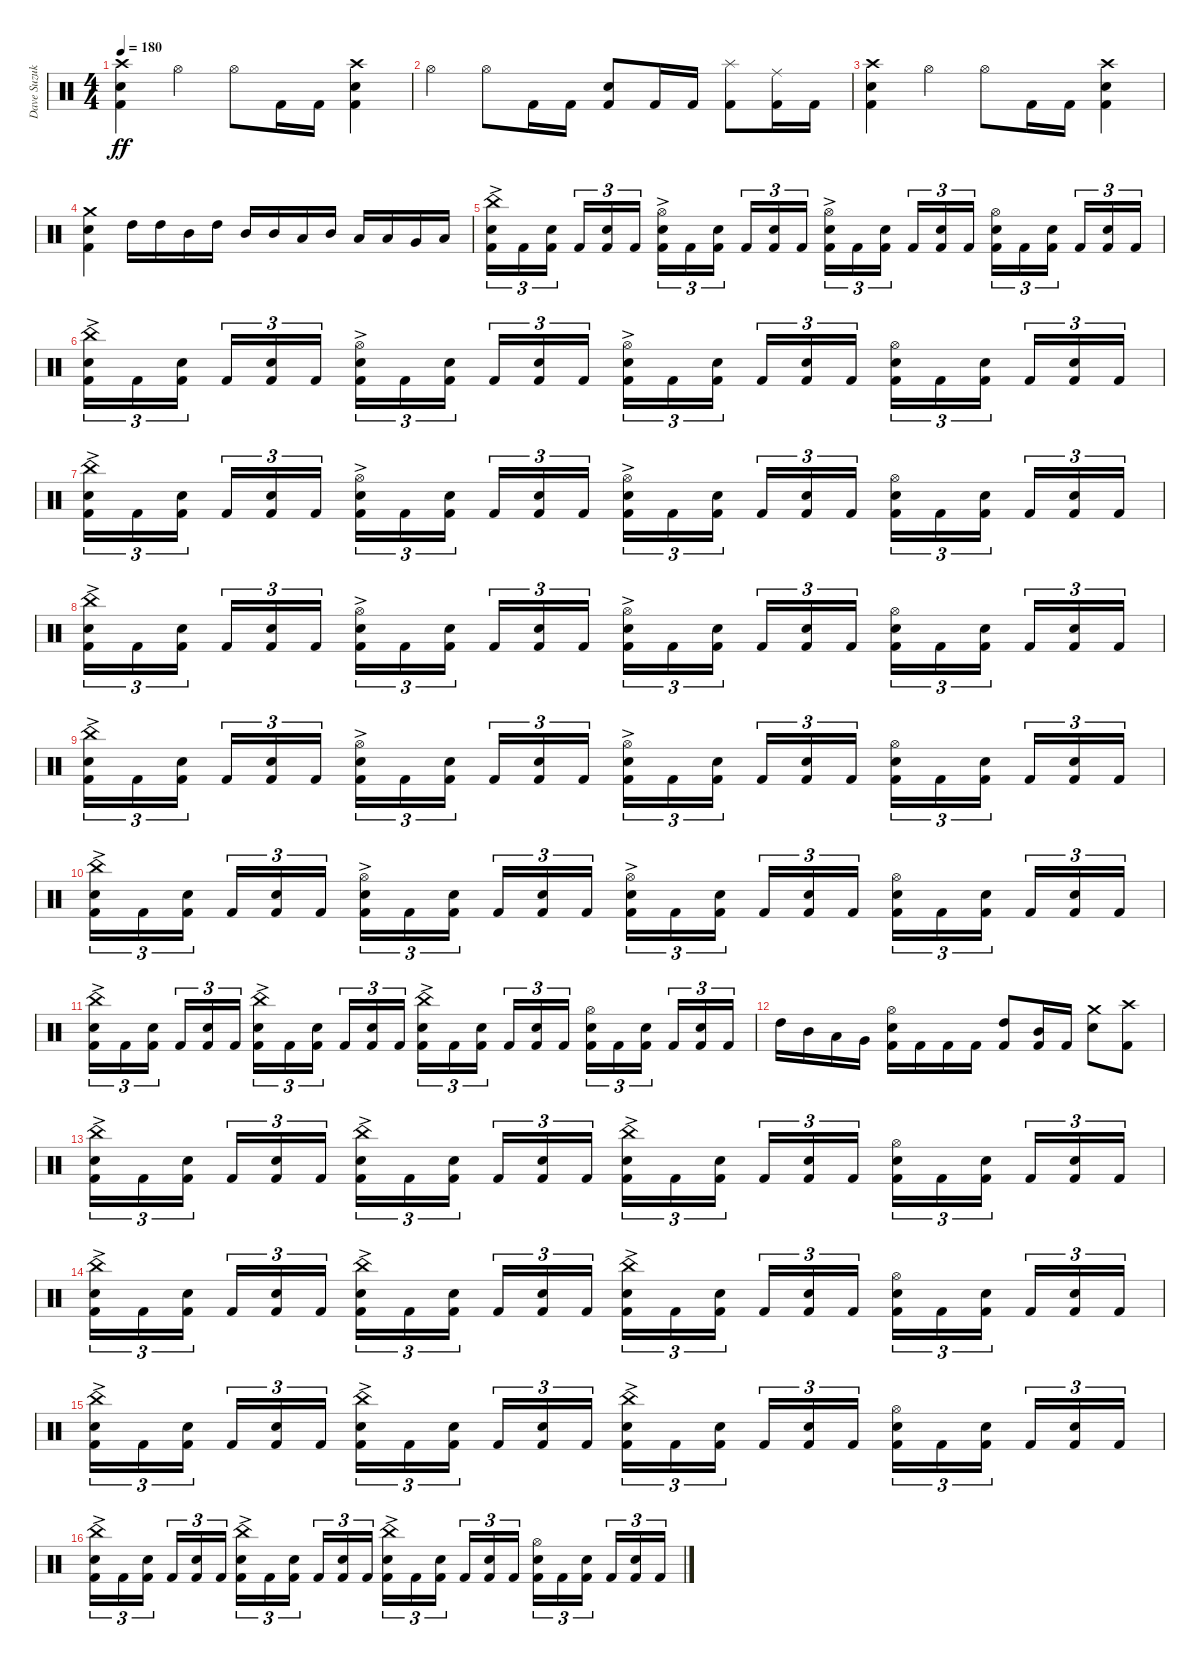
\track ("Dave Suzuki - Drums" "Dave Suzuk") {instrument percussion}
\staff {score}
\articulation defaults
\ts (4 4)
\tempo 180
\clef neutral
\ks c
("Crash high (hit)" "Electric Snare (hit)" "Kick (hit) 2").4{dy ff} "Hi-Hat (open)".4 "Hi-Hat (open)".8 "Kick (hit) 2".16 "Kick (hit) 2".16 ("Crash high (hit)" "Electric Snare (hit)" "Kick (hit) 2").4 |
"Hi-Hat (open)".4 "Hi-Hat (open)".8 "Kick (hit) 2".16 "Kick (hit) 2".16 ("Electric Snare (hit)" "Kick (hit) 2").8 "Kick (hit) 2".16 "Kick (hit) 2".16 ("Splash (hit)" "Kick (hit) 2").8 ("Ride (middle)" "Kick (hit) 2").16 "Kick (hit) 2".16 |
("Crash high (hit)" "Electric Snare (hit)" "Kick (hit) 2").4 "Hi-Hat (open)".4 "Hi-Hat (open)".8 "Kick (hit) 2".16 "Kick (hit) 2".16 ("Crash high (hit)" "Electric Snare (hit)" "Kick (hit) 2").4 |
("Crash medium (hit)" "Electric Snare (hit)" "Kick (hit) 2").4 "High Tom (hit)".16 "High Tom (hit)".16 "Mid Tom (hit)".16 "High Tom (hit)".16 "Mid Tom (hit)".16 "Mid Tom (hit)".16 "Low Tom (hit)".16 "Mid Tom (hit)".16 "Low Tom (hit)".16 "Low Tom (hit)".16 "Very Low Tom (hit)".16 "Low Floor Tom (hit)".16 |
("China (hit)" "Electric Snare (hit)"{ac} "Kick (hit) 2").16{tu (3 2)} "Kick (hit) 2".16{tu (3 2)} ("Electric Snare (hit)" "Kick (hit) 2").16{tu (3 2) beam splitsecondary} "Kick (hit) 2".16{tu (3 2)} ("Electric Snare (hit)" "Kick (hit) 2").16{tu (3 2)} "Kick (hit) 2".16{tu (3 2)} ("Hi-Hat (open)" "Electric Snare (hit)"{ac} "Kick (hit) 2").16{tu (3 2)} "Kick (hit) 2".16{tu (3 2)} ("Electric Snare (hit)" "Kick (hit) 2").16{tu (3 2) beam splitsecondary} "Kick (hit) 2".16{tu (3 2)} ("Electric Snare (hit)" "Kick (hit) 2").16{tu (3 2)} "Kick (hit) 2".16{tu (3 2)} ("Hi-Hat (open)" "Electric Snare (hit)"{ac} "Kick (hit) 2").16{tu (3 2)} "Kick (hit) 2".16{tu (3 2)} ("Electric Snare (hit)" "Kick (hit) 2").16{tu (3 2) beam splitsecondary} "Kick (hit) 2".16{tu (3 2)} ("Electric Snare (hit)" "Kick (hit) 2").16{tu (3 2)} "Kick (hit) 2".16{tu (3 2)} ("Hi-Hat (open)" "Electric Snare (hit)" "Kick (hit) 2").16{tu (3 2)} "Kick (hit) 2".16{tu (3 2)} ("Electric Snare (hit)" "Kick (hit) 2").16{tu (3 2) beam splitsecondary} "Kick (hit) 2".16{tu (3 2)} ("Electric Snare (hit)" "Kick (hit) 2").16{tu (3 2)} "Kick (hit) 2".16{tu (3 2)} |
("China (hit)" "Electric Snare (hit)"{ac} "Kick (hit) 2").16{tu (3 2)} "Kick (hit) 2".16{tu (3 2)} ("Electric Snare (hit)" "Kick (hit) 2").16{tu (3 2) beam splitsecondary} "Kick (hit) 2".16{tu (3 2)} ("Electric Snare (hit)" "Kick (hit) 2").16{tu (3 2)} "Kick (hit) 2".16{tu (3 2)} ("Hi-Hat (open)" "Electric Snare (hit)"{ac} "Kick (hit) 2").16{tu (3 2)} "Kick (hit) 2".16{tu (3 2)} ("Electric Snare (hit)" "Kick (hit) 2").16{tu (3 2) beam splitsecondary} "Kick (hit) 2".16{tu (3 2)} ("Electric Snare (hit)" "Kick (hit) 2").16{tu (3 2)} "Kick (hit) 2".16{tu (3 2)} ("Hi-Hat (open)" "Electric Snare (hit)"{ac} "Kick (hit) 2").16{tu (3 2)} "Kick (hit) 2".16{tu (3 2)} ("Electric Snare (hit)" "Kick (hit) 2").16{tu (3 2) beam splitsecondary} "Kick (hit) 2".16{tu (3 2)} ("Electric Snare (hit)" "Kick (hit) 2").16{tu (3 2)} "Kick (hit) 2".16{tu (3 2)} ("Hi-Hat (open)" "Electric Snare (hit)" "Kick (hit) 2").16{tu (3 2)} "Kick (hit) 2".16{tu (3 2)} ("Electric Snare (hit)" "Kick (hit) 2").16{tu (3 2) beam splitsecondary} "Kick (hit) 2".16{tu (3 2)} ("Electric Snare (hit)" "Kick (hit) 2").16{tu (3 2)} "Kick (hit) 2".16{tu (3 2)} |
("China (hit)" "Electric Snare (hit)"{ac} "Kick (hit) 2").16{tu (3 2)} "Kick (hit) 2".16{tu (3 2)} ("Electric Snare (hit)" "Kick (hit) 2").16{tu (3 2) beam splitsecondary} "Kick (hit) 2".16{tu (3 2)} ("Electric Snare (hit)" "Kick (hit) 2").16{tu (3 2)} "Kick (hit) 2".16{tu (3 2)} ("Hi-Hat (open)" "Electric Snare (hit)"{ac} "Kick (hit) 2").16{tu (3 2)} "Kick (hit) 2".16{tu (3 2)} ("Electric Snare (hit)" "Kick (hit) 2").16{tu (3 2) beam splitsecondary} "Kick (hit) 2".16{tu (3 2)} ("Electric Snare (hit)" "Kick (hit) 2").16{tu (3 2)} "Kick (hit) 2".16{tu (3 2)} ("Hi-Hat (open)" "Electric Snare (hit)"{ac} "Kick (hit) 2").16{tu (3 2)} "Kick (hit) 2".16{tu (3 2)} ("Electric Snare (hit)" "Kick (hit) 2").16{tu (3 2) beam splitsecondary} "Kick (hit) 2".16{tu (3 2)} ("Electric Snare (hit)" "Kick (hit) 2").16{tu (3 2)} "Kick (hit) 2".16{tu (3 2)} ("Hi-Hat (open)" "Electric Snare (hit)" "Kick (hit) 2").16{tu (3 2)} "Kick (hit) 2".16{tu (3 2)} ("Electric Snare (hit)" "Kick (hit) 2").16{tu (3 2) beam splitsecondary} "Kick (hit) 2".16{tu (3 2)} ("Electric Snare (hit)" "Kick (hit) 2").16{tu (3 2)} "Kick (hit) 2".16{tu (3 2)} |
("China (hit)" "Electric Snare (hit)"{ac} "Kick (hit) 2").16{tu (3 2)} "Kick (hit) 2".16{tu (3 2)} ("Electric Snare (hit)" "Kick (hit) 2").16{tu (3 2) beam splitsecondary} "Kick (hit) 2".16{tu (3 2)} ("Electric Snare (hit)" "Kick (hit) 2").16{tu (3 2)} "Kick (hit) 2".16{tu (3 2)} ("Hi-Hat (open)" "Electric Snare (hit)"{ac} "Kick (hit) 2").16{tu (3 2)} "Kick (hit) 2".16{tu (3 2)} ("Electric Snare (hit)" "Kick (hit) 2").16{tu (3 2) beam splitsecondary} "Kick (hit) 2".16{tu (3 2)} ("Electric Snare (hit)" "Kick (hit) 2").16{tu (3 2)} "Kick (hit) 2".16{tu (3 2)} ("Hi-Hat (open)" "Electric Snare (hit)"{ac} "Kick (hit) 2").16{tu (3 2)} "Kick (hit) 2".16{tu (3 2)} ("Electric Snare (hit)" "Kick (hit) 2").16{tu (3 2) beam splitsecondary} "Kick (hit) 2".16{tu (3 2)} ("Electric Snare (hit)" "Kick (hit) 2").16{tu (3 2)} "Kick (hit) 2".16{tu (3 2)} ("Hi-Hat (open)" "Electric Snare (hit)" "Kick (hit) 2").16{tu (3 2)} "Kick (hit) 2".16{tu (3 2)} ("Electric Snare (hit)" "Kick (hit) 2").16{tu (3 2) beam splitsecondary} "Kick (hit) 2".16{tu (3 2)} ("Electric Snare (hit)" "Kick (hit) 2").16{tu (3 2)} "Kick (hit) 2".16{tu (3 2)} |
("China (hit)" "Electric Snare (hit)"{ac} "Kick (hit) 2").16{tu (3 2)} "Kick (hit) 2".16{tu (3 2)} ("Electric Snare (hit)" "Kick (hit) 2").16{tu (3 2) beam splitsecondary} "Kick (hit) 2".16{tu (3 2)} ("Electric Snare (hit)" "Kick (hit) 2").16{tu (3 2)} "Kick (hit) 2".16{tu (3 2)} ("Hi-Hat (open)" "Electric Snare (hit)"{ac} "Kick (hit) 2").16{tu (3 2)} "Kick (hit) 2".16{tu (3 2)} ("Electric Snare (hit)" "Kick (hit) 2").16{tu (3 2) beam splitsecondary} "Kick (hit) 2".16{tu (3 2)} ("Electric Snare (hit)" "Kick (hit) 2").16{tu (3 2)} "Kick (hit) 2".16{tu (3 2)} ("Hi-Hat (open)" "Electric Snare (hit)"{ac} "Kick (hit) 2").16{tu (3 2)} "Kick (hit) 2".16{tu (3 2)} ("Electric Snare (hit)" "Kick (hit) 2").16{tu (3 2) beam splitsecondary} "Kick (hit) 2".16{tu (3 2)} ("Electric Snare (hit)" "Kick (hit) 2").16{tu (3 2)} "Kick (hit) 2".16{tu (3 2)} ("Hi-Hat (open)" "Electric Snare (hit)" "Kick (hit) 2").16{tu (3 2)} "Kick (hit) 2".16{tu (3 2)} ("Electric Snare (hit)" "Kick (hit) 2").16{tu (3 2) beam splitsecondary} "Kick (hit) 2".16{tu (3 2)} ("Electric Snare (hit)" "Kick (hit) 2").16{tu (3 2)} "Kick (hit) 2".16{tu (3 2)} |
("China (hit)" "Electric Snare (hit)"{ac} "Kick (hit) 2").16{tu (3 2)} "Kick (hit) 2".16{tu (3 2)} ("Electric Snare (hit)" "Kick (hit) 2").16{tu (3 2) beam splitsecondary} "Kick (hit) 2".16{tu (3 2)} ("Electric Snare (hit)" "Kick (hit) 2").16{tu (3 2)} "Kick (hit) 2".16{tu (3 2)} ("Hi-Hat (open)" "Electric Snare (hit)"{ac} "Kick (hit) 2").16{tu (3 2)} "Kick (hit) 2".16{tu (3 2)} ("Electric Snare (hit)" "Kick (hit) 2").16{tu (3 2) beam splitsecondary} "Kick (hit) 2".16{tu (3 2)} ("Electric Snare (hit)" "Kick (hit) 2").16{tu (3 2)} "Kick (hit) 2".16{tu (3 2)} ("Hi-Hat (open)" "Electric Snare (hit)"{ac} "Kick (hit) 2").16{tu (3 2)} "Kick (hit) 2".16{tu (3 2)} ("Electric Snare (hit)" "Kick (hit) 2").16{tu (3 2) beam splitsecondary} "Kick (hit) 2".16{tu (3 2)} ("Electric Snare (hit)" "Kick (hit) 2").16{tu (3 2)} "Kick (hit) 2".16{tu (3 2)} ("Hi-Hat (open)" "Electric Snare (hit)" "Kick (hit) 2").16{tu (3 2)} "Kick (hit) 2".16{tu (3 2)} ("Electric Snare (hit)" "Kick (hit) 2").16{tu (3 2) beam splitsecondary} "Kick (hit) 2".16{tu (3 2)} ("Electric Snare (hit)" "Kick (hit) 2").16{tu (3 2)} "Kick (hit) 2".16{tu (3 2)} |
("China (hit)" "Electric Snare (hit)"{ac} "Kick (hit) 2").16{tu (3 2)} "Kick (hit) 2".16{tu (3 2)} ("Electric Snare (hit)" "Kick (hit) 2").16{tu (3 2) beam splitsecondary} "Kick (hit) 2".16{tu (3 2)} ("Electric Snare (hit)" "Kick (hit) 2").16{tu (3 2)} "Kick (hit) 2".16{tu (3 2)} ("China (hit)" "Electric Snare (hit)"{ac} "Kick (hit) 2").16{tu (3 2)} "Kick (hit) 2".16{tu (3 2)} ("Electric Snare (hit)" "Kick (hit) 2").16{tu (3 2) beam splitsecondary} "Kick (hit) 2".16{tu (3 2)} ("Electric Snare (hit)" "Kick (hit) 2").16{tu (3 2)} "Kick (hit) 2".16{tu (3 2)} ("China (hit)" "Electric Snare (hit)"{ac} "Kick (hit) 2").16{tu (3 2)} "Kick (hit) 2".16{tu (3 2)} ("Electric Snare (hit)" "Kick (hit) 2").16{tu (3 2) beam splitsecondary} "Kick (hit) 2".16{tu (3 2)} ("Electric Snare (hit)" "Kick (hit) 2").16{tu (3 2)} "Kick (hit) 2".16{tu (3 2)} ("Hi-Hat (open)" "Electric Snare (hit)" "Kick (hit) 2").16{tu (3 2)} "Kick (hit) 2".16{tu (3 2)} ("Electric Snare (hit)" "Kick (hit) 2").16{tu (3 2) beam splitsecondary} "Kick (hit) 2".16{tu (3 2)} ("Electric Snare (hit)" "Kick (hit) 2").16{tu (3 2)} "Kick (hit) 2".16{tu (3 2)} |
"High Tom (hit)".16 "Mid Tom (hit)".16 "Low Tom (hit)".16 "Very Low Tom (hit)".16 ("Hi-Hat (open)" "Electric Snare (hit)" "Kick (hit) 2").16 "Kick (hit) 2".16 "Kick (hit) 2".16 "Kick (hit) 2".16 ("High Tom (hit)" "Kick (hit) 2").8 ("Mid Tom (hit)" "Kick (hit) 2").16 "Kick (hit) 2".16 ("Crash medium (hit)" "Electric Snare (hit)").8 ("Crash high (hit)" "Kick (hit) 2").8 |
("China (hit)" "Electric Snare (hit)"{ac} "Kick (hit) 2").16{tu (3 2)} "Kick (hit) 2".16{tu (3 2)} ("Electric Snare (hit)" "Kick (hit) 2").16{tu (3 2) beam splitsecondary} "Kick (hit) 2".16{tu (3 2)} ("Electric Snare (hit)" "Kick (hit) 2").16{tu (3 2)} "Kick (hit) 2".16{tu (3 2)} ("China (hit)" "Electric Snare (hit)"{ac} "Kick (hit) 2").16{tu (3 2)} "Kick (hit) 2".16{tu (3 2)} ("Electric Snare (hit)" "Kick (hit) 2").16{tu (3 2) beam splitsecondary} "Kick (hit) 2".16{tu (3 2)} ("Electric Snare (hit)" "Kick (hit) 2").16{tu (3 2)} "Kick (hit) 2".16{tu (3 2)} ("China (hit)" "Electric Snare (hit)"{ac} "Kick (hit) 2").16{tu (3 2)} "Kick (hit) 2".16{tu (3 2)} ("Electric Snare (hit)" "Kick (hit) 2").16{tu (3 2) beam splitsecondary} "Kick (hit) 2".16{tu (3 2)} ("Electric Snare (hit)" "Kick (hit) 2").16{tu (3 2)} "Kick (hit) 2".16{tu (3 2)} ("Hi-Hat (open)" "Electric Snare (hit)" "Kick (hit) 2").16{tu (3 2)} "Kick (hit) 2".16{tu (3 2)} ("Electric Snare (hit)" "Kick (hit) 2").16{tu (3 2) beam splitsecondary} "Kick (hit) 2".16{tu (3 2)} ("Electric Snare (hit)" "Kick (hit) 2").16{tu (3 2)} "Kick (hit) 2".16{tu (3 2)} |
("China (hit)" "Electric Snare (hit)"{ac} "Kick (hit) 2").16{tu (3 2)} "Kick (hit) 2".16{tu (3 2)} ("Electric Snare (hit)" "Kick (hit) 2").16{tu (3 2) beam splitsecondary} "Kick (hit) 2".16{tu (3 2)} ("Electric Snare (hit)" "Kick (hit) 2").16{tu (3 2)} "Kick (hit) 2".16{tu (3 2)} ("China (hit)" "Electric Snare (hit)"{ac} "Kick (hit) 2").16{tu (3 2)} "Kick (hit) 2".16{tu (3 2)} ("Electric Snare (hit)" "Kick (hit) 2").16{tu (3 2) beam splitsecondary} "Kick (hit) 2".16{tu (3 2)} ("Electric Snare (hit)" "Kick (hit) 2").16{tu (3 2)} "Kick (hit) 2".16{tu (3 2)} ("China (hit)" "Electric Snare (hit)"{ac} "Kick (hit) 2").16{tu (3 2)} "Kick (hit) 2".16{tu (3 2)} ("Electric Snare (hit)" "Kick (hit) 2").16{tu (3 2) beam splitsecondary} "Kick (hit) 2".16{tu (3 2)} ("Electric Snare (hit)" "Kick (hit) 2").16{tu (3 2)} "Kick (hit) 2".16{tu (3 2)} ("Hi-Hat (open)" "Electric Snare (hit)" "Kick (hit) 2").16{tu (3 2)} "Kick (hit) 2".16{tu (3 2)} ("Electric Snare (hit)" "Kick (hit) 2").16{tu (3 2) beam splitsecondary} "Kick (hit) 2".16{tu (3 2)} ("Electric Snare (hit)" "Kick (hit) 2").16{tu (3 2)} "Kick (hit) 2".16{tu (3 2)} |
("China (hit)" "Electric Snare (hit)"{ac} "Kick (hit) 2").16{tu (3 2)} "Kick (hit) 2".16{tu (3 2)} ("Electric Snare (hit)" "Kick (hit) 2").16{tu (3 2) beam splitsecondary} "Kick (hit) 2".16{tu (3 2)} ("Electric Snare (hit)" "Kick (hit) 2").16{tu (3 2)} "Kick (hit) 2".16{tu (3 2)} ("China (hit)" "Electric Snare (hit)"{ac} "Kick (hit) 2").16{tu (3 2)} "Kick (hit) 2".16{tu (3 2)} ("Electric Snare (hit)" "Kick (hit) 2").16{tu (3 2) beam splitsecondary} "Kick (hit) 2".16{tu (3 2)} ("Electric Snare (hit)" "Kick (hit) 2").16{tu (3 2)} "Kick (hit) 2".16{tu (3 2)} ("China (hit)" "Electric Snare (hit)"{ac} "Kick (hit) 2").16{tu (3 2)} "Kick (hit) 2".16{tu (3 2)} ("Electric Snare (hit)" "Kick (hit) 2").16{tu (3 2) beam splitsecondary} "Kick (hit) 2".16{tu (3 2)} ("Electric Snare (hit)" "Kick (hit) 2").16{tu (3 2)} "Kick (hit) 2".16{tu (3 2)} ("Hi-Hat (open)" "Electric Snare (hit)" "Kick (hit) 2").16{tu (3 2)} "Kick (hit) 2".16{tu (3 2)} ("Electric Snare (hit)" "Kick (hit) 2").16{tu (3 2) beam splitsecondary} "Kick (hit) 2".16{tu (3 2)} ("Electric Snare (hit)" "Kick (hit) 2").16{tu (3 2)} "Kick (hit) 2".16{tu (3 2)} |
("China (hit)" "Electric Snare (hit)"{ac} "Kick (hit) 2").16{tu (3 2)} "Kick (hit) 2".16{tu (3 2)} ("Electric Snare (hit)" "Kick (hit) 2").16{tu (3 2) beam splitsecondary} "Kick (hit) 2".16{tu (3 2)} ("Electric Snare (hit)" "Kick (hit) 2").16{tu (3 2)} "Kick (hit) 2".16{tu (3 2)} ("China (hit)" "Electric Snare (hit)"{ac} "Kick (hit) 2").16{tu (3 2)} "Kick (hit) 2".16{tu (3 2)} ("Electric Snare (hit)" "Kick (hit) 2").16{tu (3 2) beam splitsecondary} "Kick (hit) 2".16{tu (3 2)} ("Electric Snare (hit)" "Kick (hit) 2").16{tu (3 2)} "Kick (hit) 2".16{tu (3 2)} ("China (hit)" "Electric Snare (hit)"{ac} "Kick (hit) 2").16{tu (3 2)} "Kick (hit) 2".16{tu (3 2)} ("Electric Snare (hit)" "Kick (hit) 2").16{tu (3 2) beam splitsecondary} "Kick (hit) 2".16{tu (3 2)} ("Electric Snare (hit)" "Kick (hit) 2").16{tu (3 2)} "Kick (hit) 2".16{tu (3 2)} ("Hi-Hat (open)" "Electric Snare (hit)" "Kick (hit) 2").16{tu (3 2)} "Kick (hit) 2".16{tu (3 2)} ("Electric Snare (hit)" "Kick (hit) 2").16{tu (3 2) beam splitsecondary} "Kick (hit) 2".16{tu (3 2)} ("Electric Snare (hit)" "Kick (hit) 2").16{tu (3 2)} "Kick (hit) 2".16{tu (3 2)}
